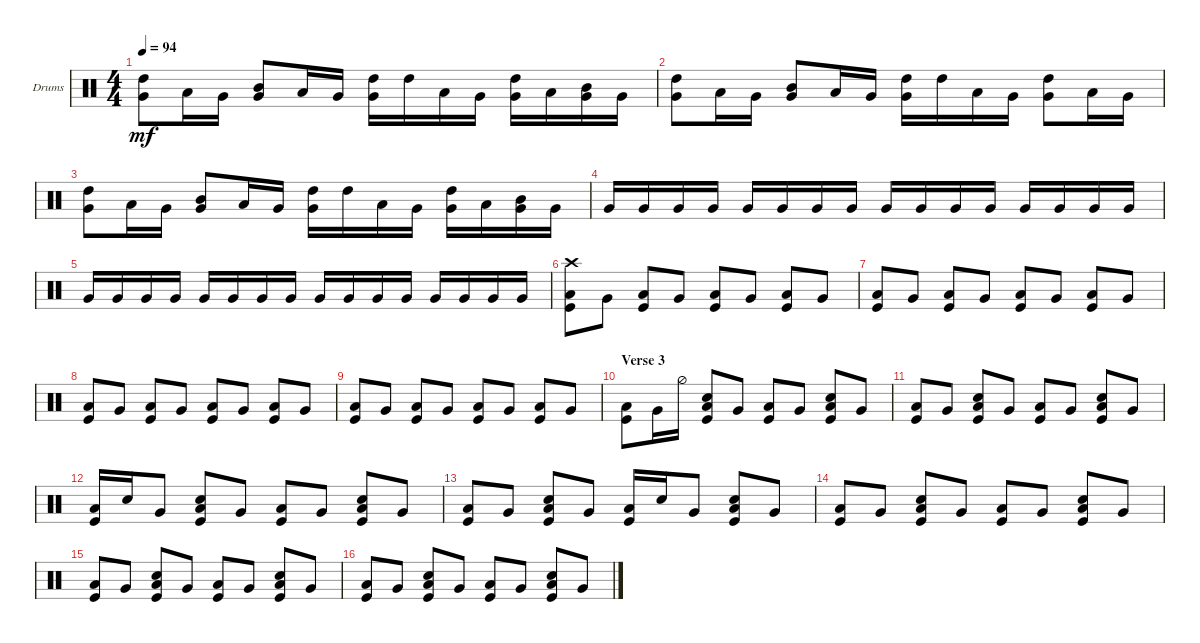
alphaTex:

\defaultSystemsLayout 4
\bracketExtendMode groupsimilarinstruments
\firstSystemTrackNameOrientation horizontal
\otherSystemsTrackNameOrientation horizontal
\track ("Drumkit" "Drums") {instrument percussion}
\staff {score}
\articulation defaults
\ts (4 4)
\tempo 94
\clef neutral
\ks c
("Very Low Tom (hit)" "High Tom (hit)").8{dy mf} "Low Tom (hit)".16 "Very Low Tom (hit)".16 ("Very Low Tom (hit)" "Mid Tom (hit)").8 "Low Tom (hit)".16 "Very Low Tom (hit)".16 ("Very Low Tom (hit)" "High Tom (hit)").16 "High Tom (hit)".16 "Low Tom (hit)".16 "Very Low Tom (hit)".16 ("Very Low Tom (hit)" "High Tom (hit)").16 "Low Tom (hit)".16 ("Very Low Tom (hit)" "Mid Tom (hit)").16 "Very Low Tom (hit)".16 |
("Very Low Tom (hit)" "High Tom (hit)").8 "Low Tom (hit)".16 "Very Low Tom (hit)".16 ("Very Low Tom (hit)" "Mid Tom (hit)").8 "Low Tom (hit)".16 "Very Low Tom (hit)".16 ("Very Low Tom (hit)" "High Tom (hit)").16 "High Tom (hit)".16 "Low Tom (hit)".16 "Very Low Tom (hit)".16 ("Very Low Tom (hit)" "High Tom (hit)").8 "Low Tom (hit)".16 "Very Low Tom (hit)".16 |
("Very Low Tom (hit)" "High Tom (hit)").8 "Low Tom (hit)".16 "Very Low Tom (hit)".16 ("Very Low Tom (hit)" "Mid Tom (hit)").8 "Low Tom (hit)".16 "Very Low Tom (hit)".16 ("Very Low Tom (hit)" "High Tom (hit)").16 "High Tom (hit)".16 "Low Tom (hit)".16 "Very Low Tom (hit)".16 ("Very Low Tom (hit)" "High Tom (hit)").16 "Low Tom (hit)".16 ("Very Low Tom (hit)" "Mid Tom (hit)").16 "Very Low Tom (hit)".16 |
"Very Low Tom (hit)".16 "Very Low Tom (hit)".16 "Very Low Tom (hit)".16 "Very Low Tom (hit)".16 "Very Low Tom (hit)".16 "Very Low Tom (hit)".16 "Very Low Tom (hit)".16 "Very Low Tom (hit)".16 "Very Low Tom (hit)".16 "Very Low Tom (hit)".16 "Very Low Tom (hit)".16 "Very Low Tom (hit)".16 "Very Low Tom (hit)".16 "Very Low Tom (hit)".16 "Very Low Tom (hit)".16 "Very Low Tom (hit)".16 |
"Very Low Tom (hit)".16 "Very Low Tom (hit)".16 "Very Low Tom (hit)".16 "Very Low Tom (hit)".16 "Very Low Tom (hit)".16 "Very Low Tom (hit)".16 "Very Low Tom (hit)".16 "Very Low Tom (hit)".16 "Very Low Tom (hit)".16 "Very Low Tom (hit)".16 "Very Low Tom (hit)".16 "Very Low Tom (hit)".16 "Very Low Tom (hit)".16 "Very Low Tom (hit)".16 "Very Low Tom (hit)".16 "Very Low Tom (hit)".16 |
("Kick (hit)" "Crash high (hit)" "Low Tom (hit)").8 "Very Low Tom (hit)".8 ("Low Tom (hit)" "Kick (hit)").8 "Very Low Tom (hit)".8 ("Low Tom (hit)" "Kick (hit)").8 "Very Low Tom (hit)".8 ("Low Tom (hit)" "Kick (hit)").8 "Very Low Tom (hit)".8 |
("Low Tom (hit)" "Kick (hit)").8 "Very Low Tom (hit)".8 ("Low Tom (hit)" "Kick (hit)").8 "Very Low Tom (hit)".8 ("Low Tom (hit)" "Kick (hit)").8 "Very Low Tom (hit)".8 ("Low Tom (hit)" "Kick (hit)").8 "Very Low Tom (hit)".8 |
("Low Tom (hit)" "Kick (hit)").8 "Very Low Tom (hit)".8 ("Low Tom (hit)" "Kick (hit)").8 "Very Low Tom (hit)".8 ("Low Tom (hit)" "Kick (hit)").8 "Very Low Tom (hit)".8 ("Low Tom (hit)" "Kick (hit)").8 "Very Low Tom (hit)".8 |
("Low Tom (hit)" "Kick (hit)").8 "Very Low Tom (hit)".8 ("Low Tom (hit)" "Kick (hit)").8 "Very Low Tom (hit)".8 ("Low Tom (hit)" "Kick (hit)").8 "Very Low Tom (hit)".8 ("Low Tom (hit)" "Kick (hit)").8 "Very Low Tom (hit)".8 |
\section ("" "Verse 3")
("Low Tom (hit)" "Kick (hit)").8 "Very Low Tom (hit)".16 "Hi-Hat (half)".16 ("Low Tom (hit)" "Kick (hit)" "Snare (hit) 2").8 "Very Low Tom (hit)".8 ("Low Tom (hit)" "Kick (hit)").8 "Very Low Tom (hit)".8 ("Low Tom (hit)" "Kick (hit)" "Snare (hit) 2").8 "Very Low Tom (hit)".8 |
("Low Tom (hit)" "Kick (hit)").8 "Very Low Tom (hit)".8 ("Low Tom (hit)" "Kick (hit)" "Snare (hit) 2").8 "Very Low Tom (hit)".8 ("Low Tom (hit)" "Kick (hit)").8 "Very Low Tom (hit)".8 ("Low Tom (hit)" "Kick (hit)" "Snare (hit) 2").8 "Very Low Tom (hit)".8 |
("Low Tom (hit)" "Kick (hit)").16 "Snare (hit) 2".16 "Very Low Tom (hit)".8 ("Low Tom (hit)" "Kick (hit)" "Snare (hit) 2").8 "Very Low Tom (hit)".8 ("Low Tom (hit)" "Kick (hit)").8 "Very Low Tom (hit)".8 ("Low Tom (hit)" "Kick (hit)" "Snare (hit) 2").8 "Very Low Tom (hit)".8 |
("Low Tom (hit)" "Kick (hit)").8 "Very Low Tom (hit)".8 ("Low Tom (hit)" "Kick (hit)" "Snare (hit) 2").8 "Very Low Tom (hit)".8 ("Low Tom (hit)" "Kick (hit)").16 "Snare (hit) 2".16 "Very Low Tom (hit)".8 ("Low Tom (hit)" "Kick (hit)" "Snare (hit) 2").8 "Very Low Tom (hit)".8 |
("Low Tom (hit)" "Kick (hit)").8 "Very Low Tom (hit)".8 ("Low Tom (hit)" "Kick (hit)" "Snare (hit) 2").8 "Very Low Tom (hit)".8 ("Low Tom (hit)" "Kick (hit)").8 "Very Low Tom (hit)".8 ("Kick (hit)" "Low Tom (hit)" "Snare (hit) 2").8 "Very Low Tom (hit)".8 |
("Low Tom (hit)" "Kick (hit)").8 "Very Low Tom (hit)".8 ("Low Tom (hit)" "Kick (hit)" "Snare (hit) 2").8 "Very Low Tom (hit)".8 ("Low Tom (hit)" "Kick (hit)").8 "Very Low Tom (hit)".8 ("Kick (hit)" "Low Tom (hit)" "Snare (hit) 2").8 "Very Low Tom (hit)".8 |
("Low Tom (hit)" "Kick (hit)").8 "Very Low Tom (hit)".8 ("Low Tom (hit)" "Kick (hit)" "Snare (hit) 2").8 "Very Low Tom (hit)".8 ("Low Tom (hit)" "Kick (hit)").8 "Very Low Tom (hit)".8 ("Kick (hit)" "Low Tom (hit)" "Snare (hit) 2").8 "Very Low Tom (hit)".8
